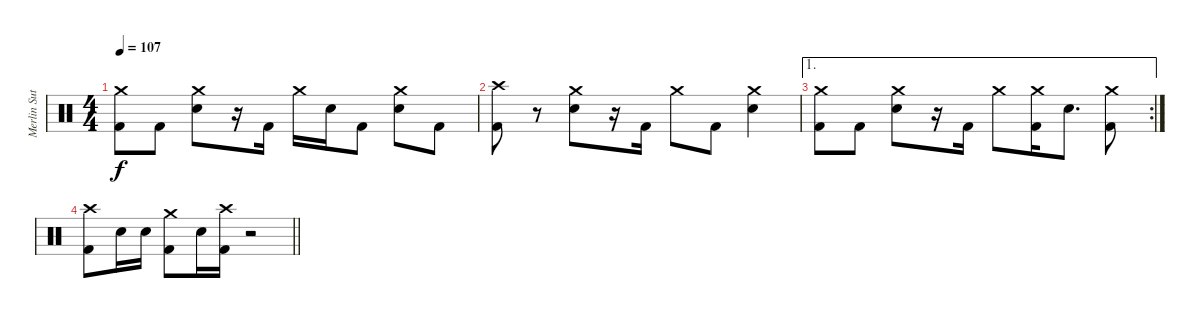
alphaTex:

\track ("Merlin Sutter" "Merlin Sut") {instrument percussion}
\staff {score}
\articulation defaults
\ts (4 4)
\tempo 107
\clef neutral
\ks c
("Crash medium (hit)" "Kick (hit) 2").8{dy f} "Kick (hit) 2".8 ("Crash medium (hit)" "Snare (hit) 2").8 r.16 "Kick (hit) 2".16 "Crash medium (hit)".16 "Snare (hit) 2".16 "Kick (hit) 2".8 ("Crash medium (hit)" "Snare (hit) 2").8 "Kick (hit) 2".8 |
("Crash high (hit)" "Kick (hit) 2").8 r.8 ("Crash medium (hit)" "Snare (hit) 2").8 r.16 "Kick (hit) 2".16 "Crash medium (hit)".8 "Kick (hit) 2".8 ("Crash medium (hit)" "Snare (hit) 2").4 |
\ae 1
\rc 2
("Crash medium (hit)" "Kick (hit) 2").8 "Kick (hit) 2".8 ("Crash medium (hit)" "Snare (hit) 2").8 r.16 "Kick (hit) 2".16 "Crash medium (hit)".8 ("Crash medium (hit)" "Kick (hit) 2").16 "Snare (hit) 2".8{d} ("Crash medium (hit)" "Kick (hit) 2").8 |
\barLineRight lightlight
("Crash high (hit)" "Kick (hit) 2").8 "Snare (hit) 2".16 "Snare (hit) 2".16 ("Crash medium (hit)" "Kick (hit) 2").8 "Snare (hit) 2".16 ("Crash high (hit)" "Kick (hit) 2").16 r.2
